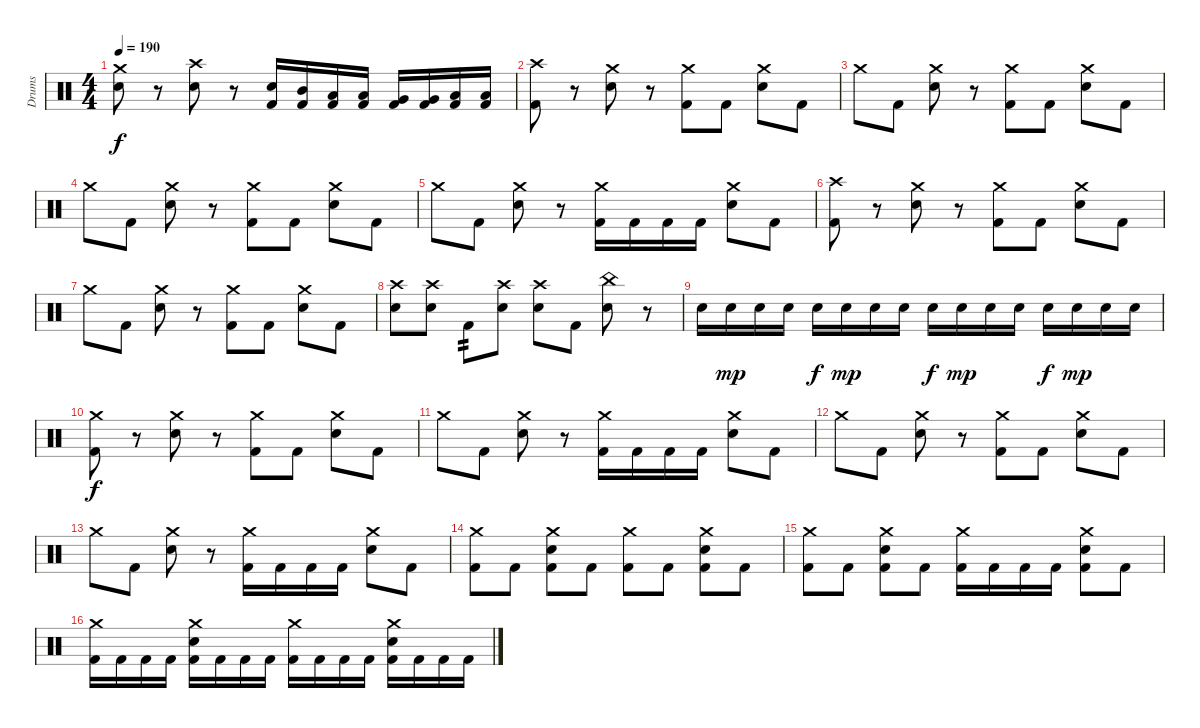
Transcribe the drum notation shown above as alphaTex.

\track ("Drums" "Drums") {instrument percussion}
\staff {score}
\articulation defaults
\ts (4 4)
\tempo 190
\clef neutral
\ks c
("Crash medium (hit)" "Electric Snare (hit)").8{dy f} r.8 ("Crash high (hit)" "Electric Snare (hit)").8 r.8 ("Electric Snare (hit)" "Kick (hit) 2").16 ("Mid Tom (hit)" "Kick (hit) 2").16 ("Low Tom (hit)" "Kick (hit) 2").16 ("Low Tom (hit)" "Kick (hit) 2").16 ("Very Low Tom (hit)" "Kick (hit) 2").16 ("Very Low Tom (hit)" "Kick (hit) 2").16 ("Low Floor Tom (hit)" "Kick (hit) 2").16 ("Low Floor Tom (hit)" "Kick (hit) 2").16 |
("Crash high (hit)" "Kick (hit) 2").8 r.8 ("Crash medium (hit)" "Electric Snare (hit)").8 r.8 ("Crash medium (hit)" "Kick (hit) 2").8 "Kick (hit) 2".8 ("Crash medium (hit)" "Electric Snare (hit)").8 "Kick (hit) 2".8 |
"Crash medium (hit)".8 "Kick (hit) 2".8 ("Crash medium (hit)" "Electric Snare (hit)").8 r.8 ("Crash medium (hit)" "Kick (hit) 2").8 "Kick (hit) 2".8 ("Crash medium (hit)" "Electric Snare (hit)").8 "Kick (hit) 2".8 |
"Crash medium (hit)".8 "Kick (hit) 2".8 ("Crash medium (hit)" "Electric Snare (hit)").8 r.8 ("Crash medium (hit)" "Kick (hit) 2").8 "Kick (hit) 2".8 ("Crash medium (hit)" "Electric Snare (hit)").8 "Kick (hit) 2".8 |
"Crash medium (hit)".8 "Kick (hit) 2".8 ("Crash medium (hit)" "Electric Snare (hit)").8 r.8 ("Crash medium (hit)" "Kick (hit) 2").16 "Kick (hit) 2".16 "Kick (hit) 2".16 "Kick (hit) 2".16 ("Crash medium (hit)" "Electric Snare (hit)").8 "Kick (hit) 2".8 |
("Crash high (hit)" "Kick (hit) 2").8 r.8 ("Crash medium (hit)" "Electric Snare (hit)").8 r.8 ("Crash medium (hit)" "Kick (hit) 2").8 "Kick (hit) 2".8 ("Crash medium (hit)" "Electric Snare (hit)").8 "Kick (hit) 2".8 |
"Crash medium (hit)".8 "Kick (hit) 2".8 ("Crash medium (hit)" "Electric Snare (hit)").8 r.8 ("Crash medium (hit)" "Kick (hit) 2").8 "Kick (hit) 2".8 ("Crash medium (hit)" "Electric Snare (hit)").8 "Kick (hit) 2".8 |
("Crash high (hit)" "Electric Snare (hit)").8 ("Crash high (hit)" "Electric Snare (hit)").8 "Kick (hit) 2".8{tp 2} ("Crash high (hit)" "Electric Snare (hit)").8 ("Crash high (hit)" "Electric Snare (hit)").8 "Kick (hit) 2".8 ("China (hit)" "Electric Snare (hit)").8 r.8 |
"Electric Snare (hit)".16 "Electric Snare (hit)".16{dy mp} "Electric Snare (hit)".16 "Electric Snare (hit)".16 "Electric Snare (hit)".16{dy f} "Electric Snare (hit)".16{dy mp} "Electric Snare (hit)".16 "Electric Snare (hit)".16 "Electric Snare (hit)".16{dy f} "Electric Snare (hit)".16{dy mp} "Electric Snare (hit)".16 "Electric Snare (hit)".16 "Electric Snare (hit)".16{dy f} "Electric Snare (hit)".16{dy mp} "Electric Snare (hit)".16 "Electric Snare (hit)".16 |
("Crash medium (hit)" "Kick (hit) 2").8{dy f} r.8 ("Crash medium (hit)" "Electric Snare (hit)").8 r.8 ("Crash medium (hit)" "Kick (hit) 2").8 "Kick (hit) 2".8 ("Crash medium (hit)" "Electric Snare (hit)").8 "Kick (hit) 2".8 |
"Crash medium (hit)".8 "Kick (hit) 2".8 ("Crash medium (hit)" "Electric Snare (hit)").8 r.8 ("Crash medium (hit)" "Kick (hit) 2").16 "Kick (hit) 2".16 "Kick (hit) 2".16 "Kick (hit) 2".16 ("Crash medium (hit)" "Electric Snare (hit)").8 "Kick (hit) 2".8 |
"Crash medium (hit)".8 "Kick (hit) 2".8 ("Crash medium (hit)" "Electric Snare (hit)").8 r.8 ("Crash medium (hit)" "Kick (hit) 2").8 "Kick (hit) 2".8 ("Crash medium (hit)" "Electric Snare (hit)").8 "Kick (hit) 2".8 |
"Crash medium (hit)".8 "Kick (hit) 2".8 ("Crash medium (hit)" "Electric Snare (hit)").8 r.8 ("Crash medium (hit)" "Kick (hit) 2").16 "Kick (hit) 2".16 "Kick (hit) 2".16 "Kick (hit) 2".16 ("Crash medium (hit)" "Electric Snare (hit)").8 "Kick (hit) 2".8 |
("Crash medium (hit)" "Kick (hit) 2").8 "Kick (hit) 2".8 ("Crash medium (hit)" "Electric Snare (hit)" "Kick (hit) 2").8 "Kick (hit) 2".8 ("Crash medium (hit)" "Kick (hit) 2").8 "Kick (hit) 2".8 ("Crash medium (hit)" "Electric Snare (hit)" "Kick (hit) 2").8 "Kick (hit) 2".8 |
("Crash medium (hit)" "Kick (hit) 2").8 "Kick (hit) 2".8 ("Crash medium (hit)" "Electric Snare (hit)" "Kick (hit) 2").8 "Kick (hit) 2".8 ("Crash medium (hit)" "Kick (hit) 2").16 "Kick (hit) 2".16 "Kick (hit) 2".16 "Kick (hit) 2".16 ("Crash medium (hit)" "Electric Snare (hit)" "Kick (hit) 2").8 "Kick (hit) 2".8 |
("Crash medium (hit)" "Kick (hit) 2").16 "Kick (hit) 2".16 "Kick (hit) 2".16 "Kick (hit) 2".16 ("Crash medium (hit)" "Electric Snare (hit)" "Kick (hit) 2").16 "Kick (hit) 2".16 "Kick (hit) 2".16 "Kick (hit) 2".16 ("Crash medium (hit)" "Kick (hit) 2").16 "Kick (hit) 2".16 "Kick (hit) 2".16 "Kick (hit) 2".16 ("Crash medium (hit)" "Electric Snare (hit)" "Kick (hit) 2").16 "Kick (hit) 2".16 "Kick (hit) 2".16 "Kick (hit) 2".16
